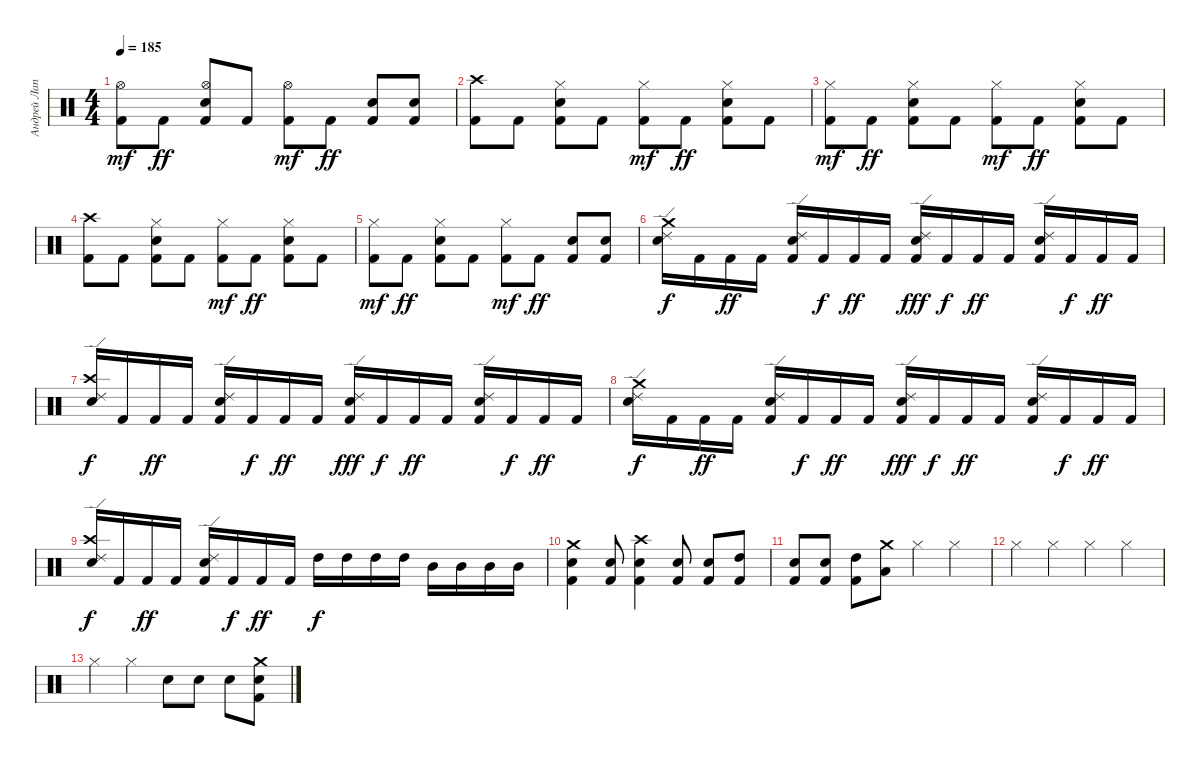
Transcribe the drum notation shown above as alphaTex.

\track ("Андрей Лаптев" "Андрей Лап") {instrument percussion}
\staff {score}
\articulation defaults
\ts (4 4)
\tempo 185
\clef neutral
\ks c
("Kick (hit) 2" "Hi-Hat (open)").8{dy mf} "Kick (hit) 2".8{dy ff} ("Electric Snare (hit)" "Hi-Hat (open)" "Kick (hit) 2").8 "Kick (hit) 2".8 ("Kick (hit) 2" "Hi-Hat (open)").8{dy mf} "Kick (hit) 2".8{dy ff} ("Electric Snare (hit)" "Kick (hit) 2").8 ("Kick (hit) 2" "Electric Snare (hit)").8 |
("Crash high (hit)" "Kick (hit) 2").8 "Kick (hit) 2".8 ("Hi-Hat (closed)" "Electric Snare (hit)" "Kick (hit) 2").8 "Kick (hit) 2".8 ("Kick (hit) 2" "Hi-Hat (closed)").8{dy mf} "Kick (hit) 2".8{dy ff} ("Electric Snare (hit)" "Hi-Hat (closed)" "Kick (hit) 2").8 "Kick (hit) 2".8 |
("Kick (hit) 2" "Hi-Hat (closed)").8{dy mf} "Kick (hit) 2".8{dy ff} ("Electric Snare (hit)" "Hi-Hat (closed)" "Kick (hit) 2").8 "Kick (hit) 2".8 ("Kick (hit) 2" "Hi-Hat (closed)").8{dy mf} "Kick (hit) 2".8{dy ff} ("Hi-Hat (closed)" "Electric Snare (hit)" "Kick (hit) 2").8 "Kick (hit) 2".8 |
("Crash high (hit)" "Kick (hit) 2").8 "Kick (hit) 2".8 ("Hi-Hat (closed)" "Electric Snare (hit)" "Kick (hit) 2").8 "Kick (hit) 2".8 ("Kick (hit) 2" "Hi-Hat (closed)").8{dy mf} "Kick (hit) 2".8{dy ff} ("Electric Snare (hit)" "Hi-Hat (closed)" "Kick (hit) 2").8 "Kick (hit) 2".8 |
("Kick (hit) 2" "Hi-Hat (closed)").8{dy mf} "Kick (hit) 2".8{dy ff} ("Electric Snare (hit)" "Hi-Hat (closed)" "Kick (hit) 2").8 "Kick (hit) 2".8 ("Kick (hit) 2" "Hi-Hat (closed)").8{dy mf} "Kick (hit) 2".8{dy ff} ("Electric Snare (hit)" "Kick (hit) 2").8 ("Kick (hit) 2" "Electric Snare (hit)").8 |
("Ride (edge) 2" "Crash medium (hit)" "Electric Snare (hit)").16{dy f} "Kick (hit) 2".16 "Kick (hit) 2".16{dy ff} "Kick (hit) 2".16 ("Kick (hit) 2" "Electric Snare (hit)" "Ride (edge) 2").16 "Kick (hit) 2".16{dy f} "Kick (hit) 2".16{dy ff} "Kick (hit) 2".16 ("Kick (hit) 2" "Ride (edge) 2" "Electric Snare (hit)").16{dy fff} "Kick (hit) 2".16{dy f} "Kick (hit) 2".16{dy ff} "Kick (hit) 2".16 ("Ride (edge) 2" "Electric Snare (hit)" "Kick (hit) 2").16 "Kick (hit) 2".16{dy f} "Kick (hit) 2".16{dy ff} "Kick (hit) 2".16 |
("Ride (edge) 2" "Crash high (hit)" "Electric Snare (hit)").16{dy f} "Kick (hit) 2".16 "Kick (hit) 2".16{dy ff} "Kick (hit) 2".16 ("Kick (hit) 2" "Electric Snare (hit)" "Ride (edge) 2").16 "Kick (hit) 2".16{dy f} "Kick (hit) 2".16{dy ff} "Kick (hit) 2".16 ("Kick (hit) 2" "Ride (edge) 2" "Electric Snare (hit)").16{dy fff} "Kick (hit) 2".16{dy f} "Kick (hit) 2".16{dy ff} "Kick (hit) 2".16 ("Ride (edge) 2" "Electric Snare (hit)" "Kick (hit) 2").16 "Kick (hit) 2".16{dy f} "Kick (hit) 2".16{dy ff} "Kick (hit) 2".16 |
("Ride (edge) 2" "Crash medium (hit)" "Electric Snare (hit)").16{dy f} "Kick (hit) 2".16 "Kick (hit) 2".16{dy ff} "Kick (hit) 2".16 ("Kick (hit) 2" "Electric Snare (hit)" "Ride (edge) 2").16 "Kick (hit) 2".16{dy f} "Kick (hit) 2".16{dy ff} "Kick (hit) 2".16 ("Kick (hit) 2" "Ride (edge) 2" "Electric Snare (hit)").16{dy fff} "Kick (hit) 2".16{dy f} "Kick (hit) 2".16{dy ff} "Kick (hit) 2".16 ("Ride (edge) 2" "Electric Snare (hit)" "Kick (hit) 2").16 "Kick (hit) 2".16{dy f} "Kick (hit) 2".16{dy ff} "Kick (hit) 2".16 |
("Ride (edge) 2" "Crash high (hit)" "Electric Snare (hit)").16{dy f} "Kick (hit) 2".16 "Kick (hit) 2".16{dy ff} "Kick (hit) 2".16 ("Kick (hit) 2" "Electric Snare (hit)" "Ride (edge) 2").16 "Kick (hit) 2".16{dy f} "Kick (hit) 2".16{dy ff} "Kick (hit) 2".16 "High Tom (hit)".16{dy f} "High Tom (hit)".16 "High Tom (hit)".16 "High Tom (hit)".16 "Mid Tom (hit)".16 "Mid Tom (hit)".16 "Mid Tom (hit)".16 "Mid Tom (hit)".16 |
("Crash medium (hit)" "Electric Snare (hit)" "Kick (hit) 2").4 ("Kick (hit) 2" "Electric Snare (hit)").8 ("Crash high (hit)" "Electric Snare (hit)" "Kick (hit) 2").4 ("Electric Snare (hit)" "Kick (hit) 2").8 ("Electric Snare (hit)" "Kick (hit) 2").8 ("High Tom (hit)" "Kick (hit) 2").8 |
("Electric Snare (hit)" "Kick (hit) 2").8 ("Electric Snare (hit)" "Kick (hit) 2").8 ("High Tom (hit)" "Kick (hit) 2").8 ("Low Tom (hit)" "Crash medium (hit)").8 "Hi-Hat (closed)".4 "Hi-Hat (closed)".4 |
"Hi-Hat (closed)".4 "Hi-Hat (closed)".4 "Hi-Hat (closed)".4 "Hi-Hat (closed)".4 |
"Hi-Hat (closed)".4 "Hi-Hat (closed)".4 "Electric Snare (hit)".8 "Electric Snare (hit)".8 "Electric Snare (hit)".8 ("Crash medium (hit)" "Electric Snare (hit)" "Kick (hit) 2").8
